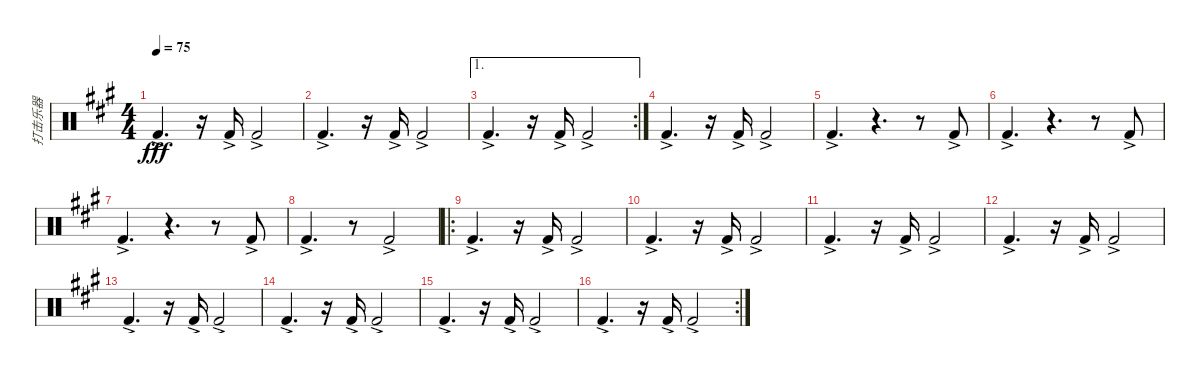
\track ("打击乐器" "打击乐器") {instrument percussion}
\staff {score}
\articulation defaults
\ts (4 4)
\tempo 75
\clef neutral
\ks a "Kick (hit) 2"{ac}.4{d dy fff}
r.16 "Kick (hit) 2"{ac}.16 "Kick (hit) 2"{ac}.2 |
"Kick (hit) 2"{ac}.4{d} r.16 "Kick (hit) 2"{ac}.16 "Kick (hit) 2"{ac}.2 |
\ae 1
\rc 2 "Kick (hit) 2"{ac}.4{d}
r.16 "Kick (hit) 2"{ac}.16 "Kick (hit) 2"{ac}.2 |
"Kick (hit) 2"{ac}.4{d} r.16 "Kick (hit) 2"{ac}.16 "Kick (hit) 2"{ac}.2 |
"Kick (hit) 2"{ac}.4{d} r.4{d} r.8 "Kick (hit) 2"{ac}.8 |
"Kick (hit) 2"{ac}.4{d} r.4{d} r.8 "Kick (hit) 2"{ac}.8 |
"Kick (hit) 2"{ac}.4{d} r.4{d} r.8 "Kick (hit) 2"{ac}.8 |
"Kick (hit) 2"{ac}.4{d} r.8 "Kick (hit) 2"{ac}.2 |
\ro "Kick (hit) 2"{ac}.4{d}
r.16 "Kick (hit) 2"{ac}.16 "Kick (hit) 2"{ac}.2 |
"Kick (hit) 2"{ac}.4{d} r.16 "Kick (hit) 2"{ac}.16 "Kick (hit) 2"{ac}.2 |
"Kick (hit) 2"{ac}.4{d} r.16 "Kick (hit) 2"{ac}.16 "Kick (hit) 2"{ac}.2 |
"Kick (hit) 2"{ac}.4{d} r.16 "Kick (hit) 2"{ac}.16 "Kick (hit) 2"{ac}.2 |
"Kick (hit) 2"{ac}.4{d} r.16 "Kick (hit) 2"{ac}.16 "Kick (hit) 2"{ac}.2 |
"Kick (hit) 2"{ac}.4{d} r.16 "Kick (hit) 2"{ac}.16 "Kick (hit) 2"{ac}.2 |
"Kick (hit) 2"{ac}.4{d} r.16 "Kick (hit) 2"{ac}.16 "Kick (hit) 2"{ac}.2 |
\rc 2 "Kick (hit) 2"{ac}.4{d}
r.16 "Kick (hit) 2"{ac}.16 "Kick (hit) 2"{ac}.2
